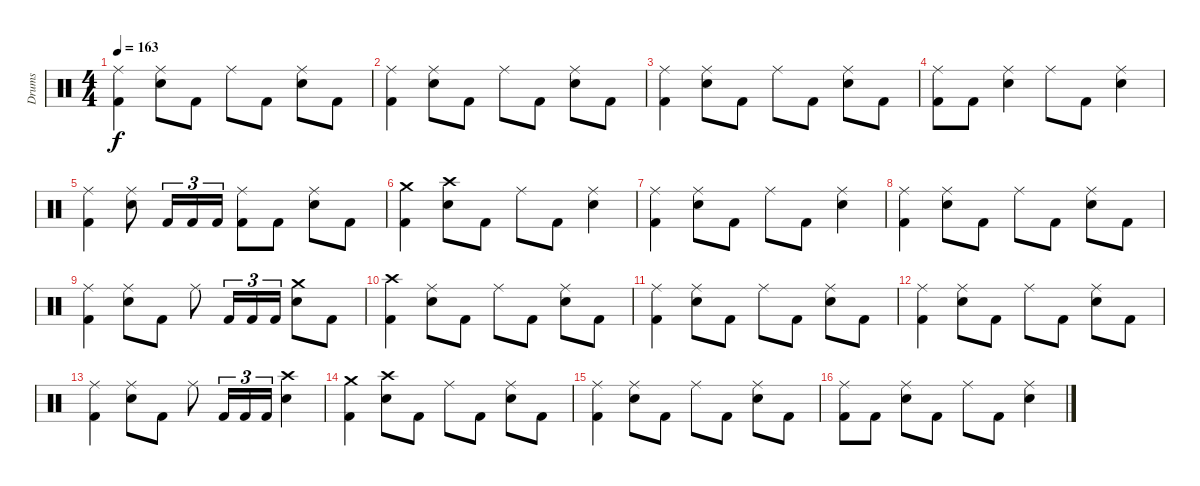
\track ("Drums" "Drums") {instrument percussion}
\staff {score}
\articulation defaults
\ts (4 4)
\tempo 163
\clef neutral
\ks c
("Ride (middle)" "Kick (hit) 2").4{dy f} ("Ride (middle)" "Electric Snare (hit)").8 "Kick (hit) 2".8 "Ride (middle)".8 "Kick (hit) 2".8 ("Ride (middle)" "Electric Snare (hit)").8 "Kick (hit) 2".8 |
("Ride (middle)" "Kick (hit) 2").4 ("Ride (middle)" "Electric Snare (hit)").8 "Kick (hit) 2".8 "Ride (middle)".8 "Kick (hit) 2".8 ("Ride (middle)" "Electric Snare (hit)").8 "Kick (hit) 2".8 |
("Ride (middle)" "Kick (hit) 2").4 ("Ride (middle)" "Electric Snare (hit)").8 "Kick (hit) 2".8 "Ride (middle)".8 "Kick (hit) 2".8 ("Ride (middle)" "Electric Snare (hit)").8 "Kick (hit) 2".8 |
("Ride (middle)" "Kick (hit) 2").8 "Kick (hit) 2".8 ("Ride (middle)" "Electric Snare (hit)").4 "Ride (middle)".8 "Kick (hit) 2".8 ("Ride (middle)" "Electric Snare (hit)").4 |
("Ride (middle)" "Kick (hit) 2").4 ("Ride (middle)" "Electric Snare (hit)").8 "Kick (hit) 2".16{tu (3 2)} "Kick (hit) 2".16{tu (3 2)} "Kick (hit) 2".16{tu (3 2)} ("Ride (middle)" "Kick (hit) 2").8 "Kick (hit) 2".8 ("Ride (middle)" "Electric Snare (hit)").8 "Kick (hit) 2".8 |
("Crash medium (hit)" "Kick (hit) 2").4 ("Crash high (hit)" "Electric Snare (hit)").8 "Kick (hit) 2".8 "Ride (middle)".8 "Kick (hit) 2".8 ("Ride (middle)" "Electric Snare (hit)").4 |
("Ride (middle)" "Kick (hit) 2").4 ("Ride (middle)" "Electric Snare (hit)").8 "Kick (hit) 2".8 "Ride (middle)".8 "Kick (hit) 2".8 ("Ride (middle)" "Electric Snare (hit)").4 |
("Ride (middle)" "Kick (hit) 2").4 ("Ride (middle)" "Electric Snare (hit)").8 "Kick (hit) 2".8 "Ride (middle)".8 "Kick (hit) 2".8 ("Ride (middle)" "Electric Snare (hit)").8 "Kick (hit) 2".8 |
("Ride (middle)" "Kick (hit) 2").4 ("Ride (middle)" "Electric Snare (hit)").8 "Kick (hit) 2".8 "Ride (middle)".8 "Kick (hit) 2".16{tu (3 2)} "Kick (hit) 2".16{tu (3 2)} "Kick (hit) 2".16{tu (3 2)} ("Crash medium (hit)" "Electric Snare (hit)").8 "Kick (hit) 2".8 |
("Crash high (hit)" "Kick (hit) 2").4 ("Ride (middle)" "Electric Snare (hit)").8 "Kick (hit) 2".8 "Ride (middle)".8 "Kick (hit) 2".8 ("Ride (middle)" "Electric Snare (hit)").8 "Kick (hit) 2".8 |
("Ride (middle)" "Kick (hit) 2").4 ("Ride (middle)" "Electric Snare (hit)").8 "Kick (hit) 2".8 "Ride (middle)".8 "Kick (hit) 2".8 ("Ride (middle)" "Electric Snare (hit)").8 "Kick (hit) 2".8 |
("Ride (middle)" "Kick (hit) 2").4 ("Ride (middle)" "Electric Snare (hit)").8 "Kick (hit) 2".8 "Ride (middle)".8 "Kick (hit) 2".8 ("Ride (middle)" "Electric Snare (hit)").8 "Kick (hit) 2".8 |
("Ride (middle)" "Kick (hit) 2").4 ("Ride (middle)" "Electric Snare (hit)").8 "Kick (hit) 2".8 "Ride (middle)".8 "Kick (hit) 2".16{tu (3 2)} "Kick (hit) 2".16{tu (3 2)} "Kick (hit) 2".16{tu (3 2)} ("Crash high (hit)" "Electric Snare (hit)").4 |
("Crash medium (hit)" "Kick (hit) 2").4 ("Crash high (hit)" "Electric Snare (hit)").8 "Kick (hit) 2".8 "Ride (middle)".8 "Kick (hit) 2".8 ("Ride (middle)" "Electric Snare (hit)").8 "Kick (hit) 2".8 |
("Ride (middle)" "Kick (hit) 2").4 ("Ride (middle)" "Electric Snare (hit)").8 "Kick (hit) 2".8 "Ride (middle)".8 "Kick (hit) 2".8 ("Ride (middle)" "Electric Snare (hit)").8 "Kick (hit) 2".8 |
("Ride (middle)" "Kick (hit) 2").8 "Kick (hit) 2".8 ("Ride (middle)" "Electric Snare (hit)").8 "Kick (hit) 2".8 "Ride (middle)".8 "Kick (hit) 2".8 ("Ride (middle)" "Electric Snare (hit)").4
